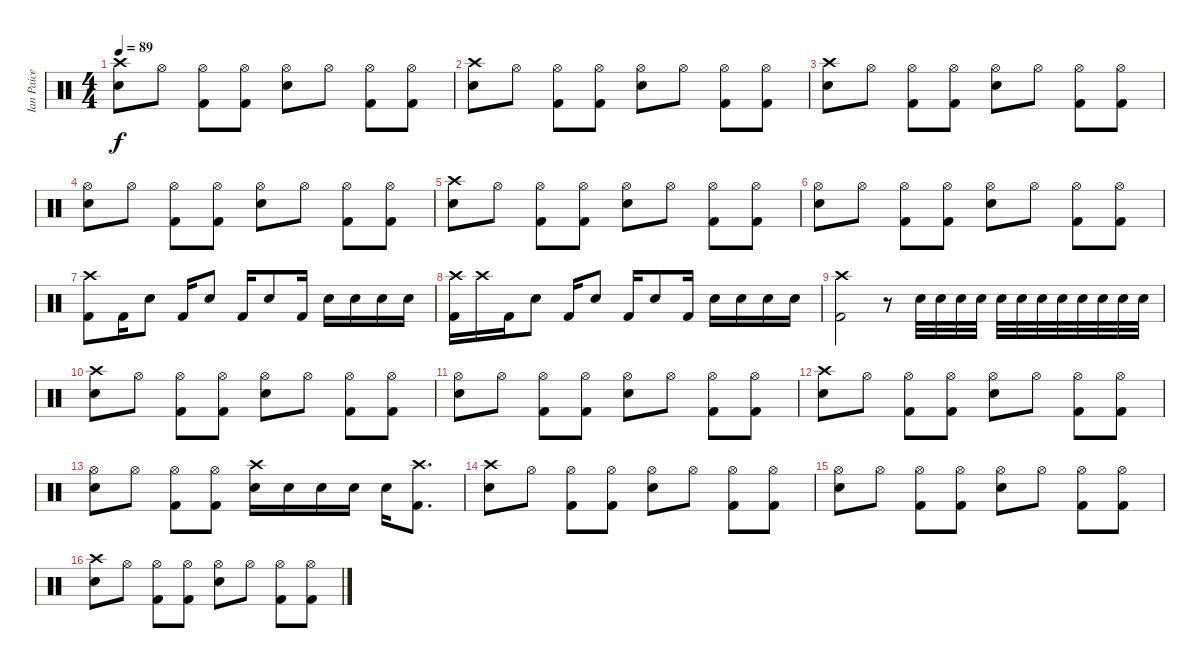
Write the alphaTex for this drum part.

\track ("Ian Paice" "Ian Paice") {instrument percussion}
\staff {score}
\articulation defaults
\ts (4 4)
\tempo 89
\clef neutral
\ks c
("Crash high (hit)" "Electric Snare (hit)").8{dy f} "Hi-Hat (open)".8 ("Hi-Hat (open)" "Kick (hit) 2").8 ("Hi-Hat (open)" "Kick (hit) 2").8 ("Hi-Hat (open)" "Electric Snare (hit)").8 "Hi-Hat (open)".8 ("Hi-Hat (open)" "Kick (hit) 2").8 ("Hi-Hat (open)" "Kick (hit) 2").8 |
("Crash high (hit)" "Electric Snare (hit)").8 "Hi-Hat (open)".8 ("Hi-Hat (open)" "Kick (hit) 2").8 ("Hi-Hat (open)" "Kick (hit) 2").8 ("Hi-Hat (open)" "Electric Snare (hit)").8 "Hi-Hat (open)".8 ("Hi-Hat (open)" "Kick (hit) 2").8 ("Hi-Hat (open)" "Kick (hit) 2").8 |
("Crash high (hit)" "Electric Snare (hit)").8 "Hi-Hat (open)".8 ("Hi-Hat (open)" "Kick (hit) 2").8 ("Hi-Hat (open)" "Kick (hit) 2").8 ("Hi-Hat (open)" "Electric Snare (hit)").8 "Hi-Hat (open)".8 ("Hi-Hat (open)" "Kick (hit) 2").8 ("Hi-Hat (open)" "Kick (hit) 2").8 |
("Hi-Hat (open)" "Electric Snare (hit)").8 "Hi-Hat (open)".8 ("Hi-Hat (open)" "Kick (hit) 2").8 ("Hi-Hat (open)" "Kick (hit) 2").8 ("Hi-Hat (open)" "Electric Snare (hit)").8 "Hi-Hat (open)".8 ("Hi-Hat (open)" "Kick (hit) 2").8 ("Hi-Hat (open)" "Kick (hit) 2").8 |
("Crash high (hit)" "Electric Snare (hit)").8 "Hi-Hat (open)".8 ("Hi-Hat (open)" "Kick (hit) 2").8 ("Hi-Hat (open)" "Kick (hit) 2").8 ("Hi-Hat (open)" "Electric Snare (hit)").8 "Hi-Hat (open)".8 ("Hi-Hat (open)" "Kick (hit) 2").8 ("Hi-Hat (open)" "Kick (hit) 2").8 |
("Hi-Hat (open)" "Electric Snare (hit)").8 "Hi-Hat (open)".8 ("Hi-Hat (open)" "Kick (hit) 2").8 ("Hi-Hat (open)" "Kick (hit) 2").8 ("Hi-Hat (open)" "Electric Snare (hit)").8 "Hi-Hat (open)".8 ("Hi-Hat (open)" "Kick (hit) 2").8 ("Hi-Hat (open)" "Kick (hit) 2").8 |
("Crash high (hit)" "Kick (hit) 2").8 "Kick (hit) 2".16 "Electric Snare (hit)".8 "Kick (hit) 2".16 "Electric Snare (hit)".8 "Kick (hit) 2".16 "Electric Snare (hit)".8 "Kick (hit) 2".16 "Electric Snare (hit)".16 "Electric Snare (hit)".16 "Electric Snare (hit)".16 "Electric Snare (hit)".16 |
("Crash high (hit)" "Kick (hit) 2").16 "Crash high (hit)".16 "Kick (hit) 2".16 "Electric Snare (hit)".8 "Kick (hit) 2".16 "Electric Snare (hit)".8 "Kick (hit) 2".16 "Electric Snare (hit)".8 "Kick (hit) 2".16 "Electric Snare (hit)".16 "Electric Snare (hit)".16 "Electric Snare (hit)".16 "Electric Snare (hit)".16 |
("Crash high (hit)" "Kick (hit) 2").2 r.8 "Electric Snare (hit)".32 "Electric Snare (hit)".32 "Electric Snare (hit)".32 "Electric Snare (hit)".32 "Electric Snare (hit)".32 "Electric Snare (hit)".32 "Electric Snare (hit)".32 "Electric Snare (hit)".32 "Electric Snare (hit)".32 "Electric Snare (hit)".32 "Electric Snare (hit)".32 "Electric Snare (hit)".32 |
("Crash high (hit)" "Electric Snare (hit)").8 "Hi-Hat (open)".8 ("Hi-Hat (open)" "Kick (hit) 2").8 ("Hi-Hat (open)" "Kick (hit) 2").8 ("Hi-Hat (open)" "Electric Snare (hit)").8 "Hi-Hat (open)".8 ("Hi-Hat (open)" "Kick (hit) 2").8 ("Hi-Hat (open)" "Kick (hit) 2").8 |
("Hi-Hat (open)" "Electric Snare (hit)").8 "Hi-Hat (open)".8 ("Hi-Hat (open)" "Kick (hit) 2").8 ("Hi-Hat (open)" "Kick (hit) 2").8 ("Hi-Hat (open)" "Electric Snare (hit)").8 "Hi-Hat (open)".8 ("Hi-Hat (open)" "Kick (hit) 2").8 ("Hi-Hat (open)" "Kick (hit) 2").8 |
("Crash high (hit)" "Electric Snare (hit)").8 "Hi-Hat (open)".8 ("Hi-Hat (open)" "Kick (hit) 2").8 ("Hi-Hat (open)" "Kick (hit) 2").8 ("Hi-Hat (open)" "Electric Snare (hit)").8 "Hi-Hat (open)".8 ("Hi-Hat (open)" "Kick (hit) 2").8 ("Hi-Hat (open)" "Kick (hit) 2").8 |
("Hi-Hat (open)" "Electric Snare (hit)").8 "Hi-Hat (open)".8 ("Hi-Hat (open)" "Kick (hit) 2").8 ("Hi-Hat (open)" "Kick (hit) 2").8 ("Crash high (hit)" "Electric Snare (hit)").16 "Electric Snare (hit)".16 "Electric Snare (hit)".16 "Electric Snare (hit)".16 "Electric Snare (hit)".16 ("Crash high (hit)" "Kick (hit) 2").8{d} |
("Crash high (hit)" "Electric Snare (hit)").8 "Hi-Hat (open)".8 ("Hi-Hat (open)" "Kick (hit) 2").8 ("Hi-Hat (open)" "Kick (hit) 2").8 ("Hi-Hat (open)" "Electric Snare (hit)").8 "Hi-Hat (open)".8 ("Hi-Hat (open)" "Kick (hit) 2").8 ("Hi-Hat (open)" "Kick (hit) 2").8 |
("Hi-Hat (open)" "Electric Snare (hit)").8 "Hi-Hat (open)".8 ("Hi-Hat (open)" "Kick (hit) 2").8 ("Hi-Hat (open)" "Kick (hit) 2").8 ("Hi-Hat (open)" "Electric Snare (hit)").8 "Hi-Hat (open)".8 ("Hi-Hat (open)" "Kick (hit) 2").8 ("Hi-Hat (open)" "Kick (hit) 2").8 |
("Crash high (hit)" "Electric Snare (hit)").8 "Hi-Hat (open)".8 ("Hi-Hat (open)" "Kick (hit) 2").8 ("Hi-Hat (open)" "Kick (hit) 2").8 ("Hi-Hat (open)" "Electric Snare (hit)").8 "Hi-Hat (open)".8 ("Hi-Hat (open)" "Kick (hit) 2").8 ("Hi-Hat (open)" "Kick (hit) 2").8
